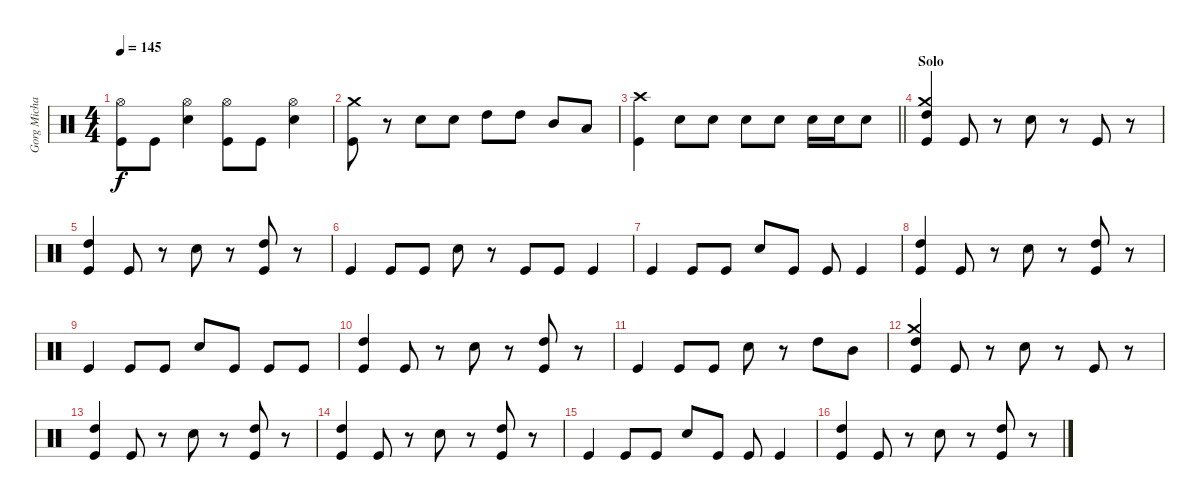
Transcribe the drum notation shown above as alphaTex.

\track ("Gorg Michael" "Gorg Micha") {instrument percussion}
\staff {score}
\articulation defaults
\ts (4 4)
\tempo 145
\clef neutral
\ks c
("Hi-Hat (open)" "Kick (hit)").8{dy f} "Kick (hit)".8 ("Hi-Hat (open)" "Snare (hit) 2").4 ("Hi-Hat (open)" "Kick (hit)").8 "Kick (hit)".8 ("Hi-Hat (open)" "Snare (hit) 2").4 |
("Crash medium (hit)" "Kick (hit)").8 r.8 "Snare (hit) 2".8 "Snare (hit) 2".8 "High Tom (hit)".8 "High Tom (hit)".8 "Mid Tom (hit)".8 "Low Tom (hit)".8 |
\barLineRight lightlight
("Crash high (hit)" "Kick (hit)").4 "Snare (hit) 2".8 "Snare (hit) 2".8 "Snare (hit) 2".8 "Snare (hit) 2".8 "Snare (hit) 2".16 "Snare (hit) 2".16 "Snare (hit) 2".8 |
\section ("" "Solo")
("Crash medium (hit)" "High Tom (hit)" "Kick (hit)").4 "Kick (hit)".8 r.8 "Snare (hit) 2".8 r.8 "Kick (hit)".8 r.8 |
("High Tom (hit)" "Kick (hit)").4 "Kick (hit)".8 r.8 "Snare (hit) 2".8 r.8 ("High Tom (hit)" "Kick (hit)").8 r.8 |
"Kick (hit)".4 "Kick (hit)".8 "Kick (hit)".8 "Snare (hit) 2".8 r.8 "Kick (hit)".8 "Kick (hit)".8 "Kick (hit)".4 |
"Kick (hit)".4 "Kick (hit)".8 "Kick (hit)".8 "Snare (hit) 2".8 "Kick (hit)".8 "Kick (hit)".8 "Kick (hit)".4 |
("High Tom (hit)" "Kick (hit)").4 "Kick (hit)".8 r.8 "Snare (hit) 2".8 r.8 ("High Tom (hit)" "Kick (hit)").8 r.8 |
"Kick (hit)".4 "Kick (hit)".8 "Kick (hit)".8 "Snare (hit) 2".8 "Kick (hit)".8 "Kick (hit)".8 "Kick (hit)".8 |
("High Tom (hit)" "Kick (hit)").4 "Kick (hit)".8 r.8 "Snare (hit) 2".8 r.8 ("High Tom (hit)" "Kick (hit)").8 r.8 |
"Kick (hit)".4 "Kick (hit)".8 "Kick (hit)".8 "Snare (hit) 2".8 r.8 "High Tom (hit)".8 "Mid Tom (hit)".8 |
("Crash medium (hit)" "High Tom (hit)" "Kick (hit)").4 "Kick (hit)".8 r.8 "Snare (hit) 2".8 r.8 "Kick (hit)".8 r.8 |
("High Tom (hit)" "Kick (hit)").4 "Kick (hit)".8 r.8 "Snare (hit) 2".8 r.8 ("High Tom (hit)" "Kick (hit)").8 r.8 |
("High Tom (hit)" "Kick (hit)").4 "Kick (hit)".8 r.8 "Snare (hit) 2".8 r.8 ("High Tom (hit)" "Kick (hit)").8 r.8 |
"Kick (hit)".4 "Kick (hit)".8 "Kick (hit)".8 "Snare (hit) 2".8 "Kick (hit)".8 "Kick (hit)".8 "Kick (hit)".4 |
("High Tom (hit)" "Kick (hit)").4 "Kick (hit)".8 r.8 "Snare (hit) 2".8 r.8 ("High Tom (hit)" "Kick (hit)").8 r.8
